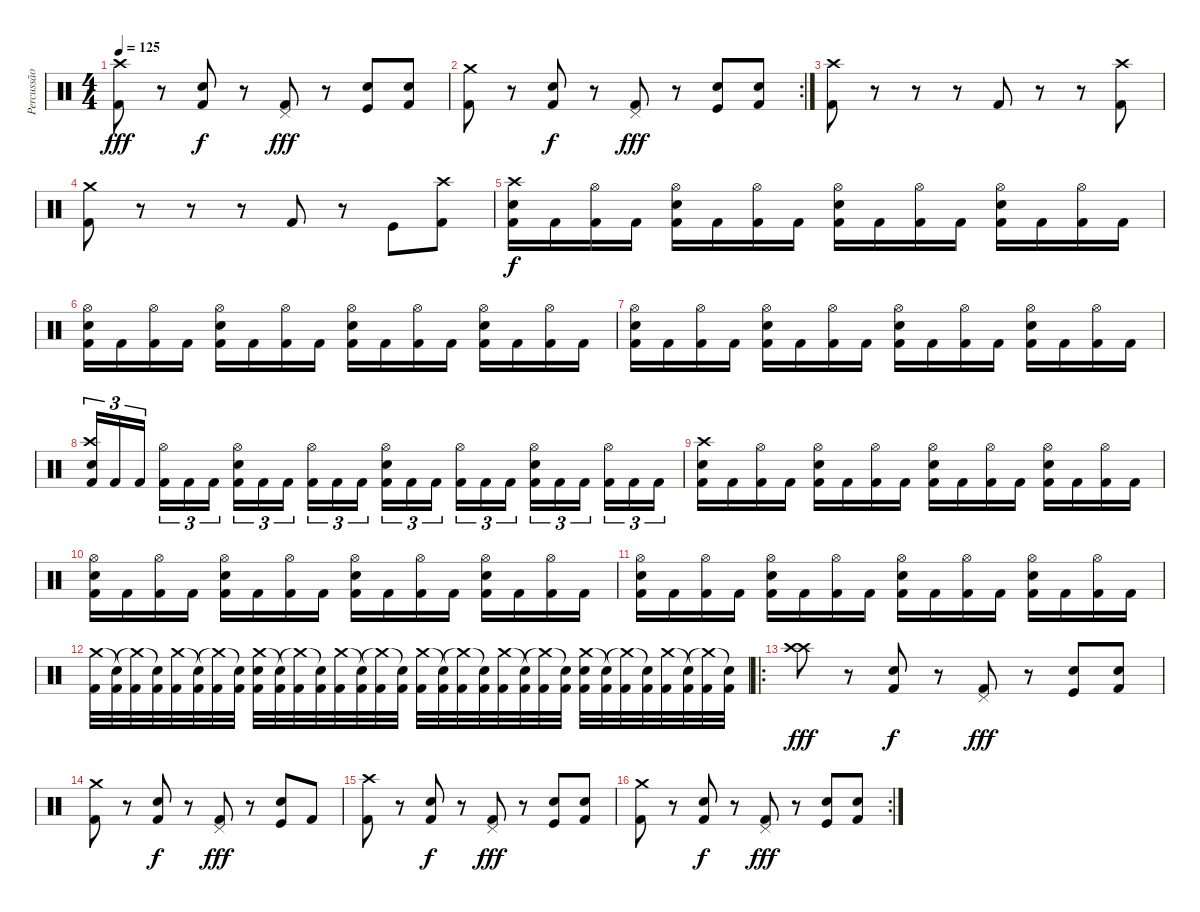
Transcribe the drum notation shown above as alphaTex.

\track ("Percussão" "Percussão") {instrument percussion}
\staff {score}
\articulation defaults
\ts (4 4)
\tempo 125
\clef neutral
\ks c
("Kick (hit) 2" "Crash high (hit)").8{dy fff} r.8 ("Kick (hit) 2" "Electric Snare (hit)").8{dy f} r.8 ("Kick (hit) 2" "Pedal Hi-Hat (hit)").8{dy fff} r.8 ("Kick (hit)" "Electric Snare (hit)").8 ("Kick (hit) 2" "Electric Snare (hit)").8 |
\rc 2
("Kick (hit) 2" "Crash medium (hit)").8 r.8 ("Kick (hit) 2" "Electric Snare (hit)").8{dy f} r.8 ("Kick (hit) 2" "Pedal Hi-Hat (hit)").8{dy fff} r.8 ("Kick (hit)" "Electric Snare (hit)").8 ("Kick (hit) 2" "Snare (hit) 2").8 |
("Kick (hit) 2" "Crash high (hit)").8 r.8 r.8 r.8 "Kick (hit) 2".8 r.8 r.8 ("Kick (hit) 2" "Crash high (hit)").8 |
("Kick (hit) 2" "Crash medium (hit)").8 r.8 r.8 r.8 "Kick (hit) 2".8 r.8 "Kick (hit)".8 ("Kick (hit) 2" "Crash high (hit)").8 |
("Kick (hit) 2" "Electric Snare (hit)" "Crash high (hit)").16{dy f} "Kick (hit) 2".16 ("Kick (hit) 2" "Hi-Hat (open)").16 "Kick (hit) 2".16 ("Kick (hit) 2" "Electric Snare (hit)" "Hi-Hat (open)").16 "Kick (hit) 2".16 ("Kick (hit) 2" "Hi-Hat (open)").16 "Kick (hit) 2".16 ("Kick (hit) 2" "Electric Snare (hit)" "Hi-Hat (open)").16 "Kick (hit) 2".16 ("Kick (hit) 2" "Hi-Hat (open)").16 "Kick (hit) 2".16 ("Kick (hit) 2" "Electric Snare (hit)" "Hi-Hat (open)").16 "Kick (hit) 2".16 ("Kick (hit) 2" "Hi-Hat (open)").16 "Kick (hit) 2".16 |
("Kick (hit) 2" "Electric Snare (hit)" "Hi-Hat (open)").16 "Kick (hit) 2".16 ("Kick (hit) 2" "Hi-Hat (open)").16 "Kick (hit) 2".16 ("Kick (hit) 2" "Electric Snare (hit)" "Hi-Hat (open)").16 "Kick (hit) 2".16 ("Kick (hit) 2" "Hi-Hat (open)").16 "Kick (hit) 2".16 ("Kick (hit) 2" "Electric Snare (hit)" "Hi-Hat (open)").16 "Kick (hit) 2".16 ("Kick (hit) 2" "Hi-Hat (open)").16 "Kick (hit) 2".16 ("Kick (hit) 2" "Electric Snare (hit)" "Hi-Hat (open)").16 "Kick (hit) 2".16 ("Kick (hit) 2" "Hi-Hat (open)").16 "Kick (hit) 2".16 |
("Kick (hit) 2" "Electric Snare (hit)" "Hi-Hat (open)").16 "Kick (hit) 2".16 ("Kick (hit) 2" "Hi-Hat (open)").16 "Kick (hit) 2".16 ("Kick (hit) 2" "Electric Snare (hit)" "Hi-Hat (open)").16 "Kick (hit) 2".16 ("Kick (hit) 2" "Hi-Hat (open)").16 "Kick (hit) 2".16 ("Kick (hit) 2" "Electric Snare (hit)" "Hi-Hat (open)").16 "Kick (hit) 2".16 ("Kick (hit) 2" "Hi-Hat (open)").16 "Kick (hit) 2".16 ("Kick (hit) 2" "Electric Snare (hit)" "Hi-Hat (open)").16 "Kick (hit) 2".16 ("Kick (hit) 2" "Hi-Hat (open)").16 "Kick (hit) 2".16 |
("Kick (hit) 2" "Electric Snare (hit)" "Crash high (hit)").16{tu (3 2)} "Kick (hit) 2".16{tu (3 2)} "Kick (hit) 2".16{tu (3 2)} ("Kick (hit) 2" "Hi-Hat (open)").16{tu (3 2)} "Kick (hit) 2".16{tu (3 2)} "Kick (hit) 2".16{tu (3 2)} ("Kick (hit) 2" "Hi-Hat (open)" "Electric Snare (hit)").16{tu (3 2)} "Kick (hit) 2".16{tu (3 2)} "Kick (hit) 2".16{tu (3 2)} ("Kick (hit) 2" "Hi-Hat (open)").16{tu (3 2)} "Kick (hit) 2".16{tu (3 2)} "Kick (hit) 2".16{tu (3 2)} ("Kick (hit) 2" "Hi-Hat (open)" "Electric Snare (hit)").16{tu (3 2)} "Kick (hit) 2".16{tu (3 2)} "Kick (hit) 2".16{tu (3 2)} ("Kick (hit) 2" "Hi-Hat (open)").16{tu (3 2)} "Kick (hit) 2".16{tu (3 2)} "Kick (hit) 2".16{tu (3 2)} ("Kick (hit) 2" "Hi-Hat (open)" "Electric Snare (hit)").16{tu (3 2)} "Kick (hit) 2".16{tu (3 2)} "Kick (hit) 2".16{tu (3 2)} ("Kick (hit) 2" "Hi-Hat (open)").16{tu (3 2)} "Kick (hit) 2".16{tu (3 2)} "Kick (hit) 2".16{tu (3 2)} |
("Kick (hit) 2" "Electric Snare (hit)" "Crash high (hit)").16 "Kick (hit) 2".16 ("Kick (hit) 2" "Hi-Hat (open)").16 "Kick (hit) 2".16 ("Kick (hit) 2" "Electric Snare (hit)" "Hi-Hat (open)").16 "Kick (hit) 2".16 ("Kick (hit) 2" "Hi-Hat (open)").16 "Kick (hit) 2".16 ("Kick (hit) 2" "Electric Snare (hit)" "Hi-Hat (open)").16 "Kick (hit) 2".16 ("Kick (hit) 2" "Hi-Hat (open)").16 "Kick (hit) 2".16 ("Kick (hit) 2" "Electric Snare (hit)" "Hi-Hat (open)").16 "Kick (hit) 2".16 ("Kick (hit) 2" "Hi-Hat (open)").16 "Kick (hit) 2".16 |
("Kick (hit) 2" "Electric Snare (hit)" "Hi-Hat (open)").16 "Kick (hit) 2".16 ("Kick (hit) 2" "Hi-Hat (open)").16 "Kick (hit) 2".16 ("Kick (hit) 2" "Electric Snare (hit)" "Hi-Hat (open)").16 "Kick (hit) 2".16 ("Kick (hit) 2" "Hi-Hat (open)").16 "Kick (hit) 2".16 ("Kick (hit) 2" "Electric Snare (hit)" "Hi-Hat (open)").16 "Kick (hit) 2".16 ("Kick (hit) 2" "Hi-Hat (open)").16 "Kick (hit) 2".16 ("Kick (hit) 2" "Electric Snare (hit)" "Hi-Hat (open)").16 "Kick (hit) 2".16 ("Kick (hit) 2" "Hi-Hat (open)").16 "Kick (hit) 2".16 |
("Kick (hit) 2" "Electric Snare (hit)" "Hi-Hat (open)").16 "Kick (hit) 2".16 ("Kick (hit) 2" "Hi-Hat (open)").16 "Kick (hit) 2".16 ("Kick (hit) 2" "Electric Snare (hit)" "Hi-Hat (open)").16 "Kick (hit) 2".16 ("Kick (hit) 2" "Hi-Hat (open)").16 "Kick (hit) 2".16 ("Kick (hit) 2" "Electric Snare (hit)" "Hi-Hat (open)").16 "Kick (hit) 2".16 ("Kick (hit) 2" "Hi-Hat (open)").16 "Kick (hit) 2".16 ("Kick (hit) 2" "Electric Snare (hit)" "Hi-Hat (open)").16 "Kick (hit) 2".16 ("Kick (hit) 2" "Hi-Hat (open)").16 "Kick (hit) 2".16 |
("Crash medium (hit)" "Kick (hit) 2").32 ("Snare (hit)"{t} "Kick (hit) 2").32 ("Crash medium (hit)"{t} "Kick (hit) 2").32 ("Snare (hit)"{t} "Kick (hit) 2").32 ("Crash medium (hit)" "Kick (hit) 2").32 ("Snare (hit)"{t} "Kick (hit) 2").32 ("Crash medium (hit)"{t} "Kick (hit) 2").32 ("Snare (hit)"{t} "Kick (hit) 2").32 ("Crash medium (hit)" "Kick (hit) 2" "Electric Snare (hit)").32 ("Snare (hit)"{t} "Kick (hit) 2").32 ("Crash medium (hit)"{t} "Kick (hit) 2").32 ("Snare (hit)"{t} "Kick (hit) 2").32 ("Crash medium (hit)" "Kick (hit) 2").32 ("Snare (hit)"{t} "Kick (hit) 2").32 ("Crash medium (hit)"{t} "Kick (hit) 2").32 ("Snare (hit)"{t} "Kick (hit) 2").32 ("Crash medium (hit)" "Kick (hit) 2").32 ("Snare (hit)"{t} "Kick (hit) 2").32 ("Crash medium (hit)"{t} "Kick (hit) 2").32 ("Snare (hit)"{t} "Kick (hit) 2").32 ("Crash medium (hit)" "Kick (hit) 2").32 ("Snare (hit)"{t} "Kick (hit) 2").32 ("Crash medium (hit)"{t} "Kick (hit) 2").32 ("Snare (hit)"{t} "Kick (hit) 2").32 ("Crash medium (hit)" "Kick (hit) 2" "Electric Snare (hit)").32 ("Snare (hit)"{t} "Kick (hit) 2").32 ("Crash medium (hit)"{t} "Kick (hit) 2").32 ("Snare (hit)"{t} "Kick (hit) 2").32 ("Crash medium (hit)" "Kick (hit) 2").32 ("Snare (hit)"{t} "Kick (hit) 2").32 ("Crash medium (hit)"{t} "Kick (hit) 2").32 ("Snare (hit)"{t} "Kick (hit) 2").32 |
\ro
("Crash high (hit)" "Crash high (hit)").8{dy fff} r.8 ("Kick (hit) 2" "Electric Snare (hit)").8{dy f} r.8 ("Kick (hit) 2" "Pedal Hi-Hat (hit)").8{dy fff} r.8 ("Kick (hit)" "Electric Snare (hit)").8 ("Kick (hit) 2" "Electric Snare (hit)").8 |
("Kick (hit) 2" "Crash medium (hit)").8 r.8 ("Kick (hit) 2" "Electric Snare (hit)").8{dy f} r.8 ("Kick (hit) 2" "Pedal Hi-Hat (hit)").8{dy fff} r.8 ("Kick (hit)" "Electric Snare (hit)").8 "Kick (hit) 2".8 |
("Kick (hit) 2" "Crash high (hit)").8 r.8 ("Kick (hit) 2" "Electric Snare (hit)").8{dy f} r.8 ("Kick (hit) 2" "Pedal Hi-Hat (hit)").8{dy fff} r.8 ("Kick (hit)" "Electric Snare (hit)").8 ("Kick (hit) 2" "Electric Snare (hit)").8 |
\rc 2
("Kick (hit) 2" "Crash medium (hit)").8 r.8 ("Kick (hit) 2" "Electric Snare (hit)").8{dy f} r.8 ("Kick (hit) 2" "Pedal Hi-Hat (hit)").8{dy fff} r.8 ("Kick (hit)" "Electric Snare (hit)").8 ("Kick (hit) 2" "Snare (hit) 2").8
